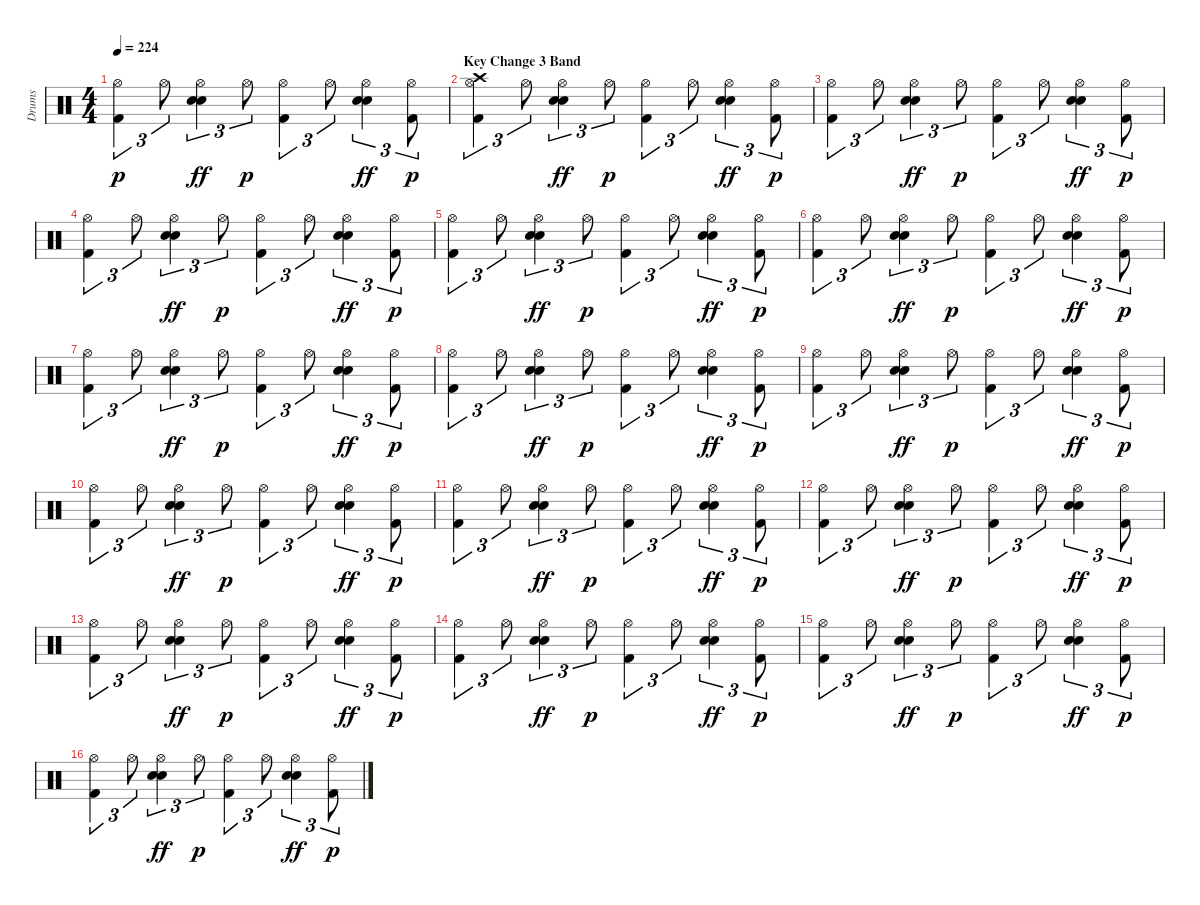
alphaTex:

\track ("Drums" "Drums") {instrument percussion}
\staff {score}
\articulation defaults
\ts (4 4)
\tempo 224
\clef neutral
\ks c
("Hi-Hat (open)" "Kick (hit) 2").4{tu (3 2) dy p} "Hi-Hat (open)".8{tu (3 2)} ("Hand Clap (hit)" "Hi-Hat (open)" "Snare (hit) 2").4{tu (3 2) dy ff} "Hi-Hat (open)".8{tu (3 2) dy p} ("Hi-Hat (open)" "Kick (hit) 2").4{tu (3 2)} "Hi-Hat (open)".8{tu (3 2)} ("Hand Clap (hit)" "Hi-Hat (open)" "Snare (hit) 2").4{tu (3 2) dy ff} ("Hi-Hat (open)" "Kick (hit) 2").8{tu (3 2) dy p} |
\section ("" "Key Change 3 Band")
("Crash high (hit)" "Hi-Hat (open)" "Kick (hit) 2").4{tu (3 2)} "Hi-Hat (open)".8{tu (3 2)} ("Hand Clap (hit)" "Hi-Hat (open)" "Snare (hit) 2").4{tu (3 2) dy ff} "Hi-Hat (open)".8{tu (3 2) dy p} ("Hi-Hat (open)" "Kick (hit) 2").4{tu (3 2)} "Hi-Hat (open)".8{tu (3 2)} ("Hand Clap (hit)" "Hi-Hat (open)" "Snare (hit) 2").4{tu (3 2) dy ff} ("Hi-Hat (open)" "Kick (hit) 2").8{tu (3 2) dy p} |
("Hi-Hat (open)" "Kick (hit) 2").4{tu (3 2)} "Hi-Hat (open)".8{tu (3 2)} ("Hand Clap (hit)" "Hi-Hat (open)" "Snare (hit) 2").4{tu (3 2) dy ff} "Hi-Hat (open)".8{tu (3 2) dy p} ("Hi-Hat (open)" "Kick (hit) 2").4{tu (3 2)} "Hi-Hat (open)".8{tu (3 2)} ("Hand Clap (hit)" "Hi-Hat (open)" "Snare (hit) 2").4{tu (3 2) dy ff} ("Hi-Hat (open)" "Kick (hit) 2").8{tu (3 2) dy p} |
("Hi-Hat (open)" "Kick (hit) 2").4{tu (3 2)} "Hi-Hat (open)".8{tu (3 2)} ("Hand Clap (hit)" "Hi-Hat (open)" "Snare (hit) 2").4{tu (3 2) dy ff} "Hi-Hat (open)".8{tu (3 2) dy p} ("Hi-Hat (open)" "Kick (hit) 2").4{tu (3 2)} "Hi-Hat (open)".8{tu (3 2)} ("Hand Clap (hit)" "Hi-Hat (open)" "Snare (hit) 2").4{tu (3 2) dy ff} ("Hi-Hat (open)" "Kick (hit) 2").8{tu (3 2) dy p} |
("Hi-Hat (open)" "Kick (hit) 2").4{tu (3 2)} "Hi-Hat (open)".8{tu (3 2)} ("Hand Clap (hit)" "Hi-Hat (open)" "Snare (hit) 2").4{tu (3 2) dy ff} "Hi-Hat (open)".8{tu (3 2) dy p} ("Hi-Hat (open)" "Kick (hit) 2").4{tu (3 2)} "Hi-Hat (open)".8{tu (3 2)} ("Hand Clap (hit)" "Hi-Hat (open)" "Snare (hit) 2").4{tu (3 2) dy ff} ("Hi-Hat (open)" "Kick (hit) 2").8{tu (3 2) dy p} |
("Hi-Hat (open)" "Kick (hit) 2").4{tu (3 2)} "Hi-Hat (open)".8{tu (3 2)} ("Hand Clap (hit)" "Hi-Hat (open)" "Snare (hit) 2").4{tu (3 2) dy ff} "Hi-Hat (open)".8{tu (3 2) dy p} ("Hi-Hat (open)" "Kick (hit) 2").4{tu (3 2)} "Hi-Hat (open)".8{tu (3 2)} ("Hand Clap (hit)" "Hi-Hat (open)" "Snare (hit) 2").4{tu (3 2) dy ff} ("Hi-Hat (open)" "Kick (hit) 2").8{tu (3 2) dy p} |
("Hi-Hat (open)" "Kick (hit) 2").4{tu (3 2)} "Hi-Hat (open)".8{tu (3 2)} ("Hand Clap (hit)" "Hi-Hat (open)" "Snare (hit) 2").4{tu (3 2) dy ff} "Hi-Hat (open)".8{tu (3 2) dy p} ("Hi-Hat (open)" "Kick (hit) 2").4{tu (3 2)} "Hi-Hat (open)".8{tu (3 2)} ("Hand Clap (hit)" "Hi-Hat (open)" "Snare (hit) 2").4{tu (3 2) dy ff} ("Hi-Hat (open)" "Kick (hit) 2").8{tu (3 2) dy p} |
("Hi-Hat (open)" "Kick (hit) 2").4{tu (3 2)} "Hi-Hat (open)".8{tu (3 2)} ("Hand Clap (hit)" "Hi-Hat (open)" "Snare (hit) 2").4{tu (3 2) dy ff} "Hi-Hat (open)".8{tu (3 2) dy p} ("Hi-Hat (open)" "Kick (hit) 2").4{tu (3 2)} "Hi-Hat (open)".8{tu (3 2)} ("Hand Clap (hit)" "Hi-Hat (open)" "Snare (hit) 2").4{tu (3 2) dy ff} ("Hi-Hat (open)" "Kick (hit) 2").8{tu (3 2) dy p} |
("Hi-Hat (open)" "Kick (hit) 2").4{tu (3 2)} "Hi-Hat (open)".8{tu (3 2)} ("Hand Clap (hit)" "Hi-Hat (open)" "Snare (hit) 2").4{tu (3 2) dy ff} "Hi-Hat (open)".8{tu (3 2) dy p} ("Hi-Hat (open)" "Kick (hit) 2").4{tu (3 2)} "Hi-Hat (open)".8{tu (3 2)} ("Hand Clap (hit)" "Hi-Hat (open)" "Snare (hit) 2").4{tu (3 2) dy ff} ("Hi-Hat (open)" "Kick (hit) 2").8{tu (3 2) dy p} |
("Hi-Hat (open)" "Kick (hit) 2").4{tu (3 2)} "Hi-Hat (open)".8{tu (3 2)} ("Hand Clap (hit)" "Hi-Hat (open)" "Snare (hit) 2").4{tu (3 2) dy ff} "Hi-Hat (open)".8{tu (3 2) dy p} ("Hi-Hat (open)" "Kick (hit) 2").4{tu (3 2)} "Hi-Hat (open)".8{tu (3 2)} ("Hand Clap (hit)" "Hi-Hat (open)" "Snare (hit) 2").4{tu (3 2) dy ff} ("Hi-Hat (open)" "Kick (hit) 2").8{tu (3 2) dy p} |
("Hi-Hat (open)" "Kick (hit) 2").4{tu (3 2)} "Hi-Hat (open)".8{tu (3 2)} ("Hand Clap (hit)" "Hi-Hat (open)" "Snare (hit) 2").4{tu (3 2) dy ff} "Hi-Hat (open)".8{tu (3 2) dy p} ("Hi-Hat (open)" "Kick (hit) 2").4{tu (3 2)} "Hi-Hat (open)".8{tu (3 2)} ("Hand Clap (hit)" "Hi-Hat (open)" "Snare (hit) 2").4{tu (3 2) dy ff} ("Hi-Hat (open)" "Kick (hit) 2").8{tu (3 2) dy p} |
("Hi-Hat (open)" "Kick (hit) 2").4{tu (3 2)} "Hi-Hat (open)".8{tu (3 2)} ("Hand Clap (hit)" "Hi-Hat (open)" "Snare (hit) 2").4{tu (3 2) dy ff} "Hi-Hat (open)".8{tu (3 2) dy p} ("Hi-Hat (open)" "Kick (hit) 2").4{tu (3 2)} "Hi-Hat (open)".8{tu (3 2)} ("Hand Clap (hit)" "Hi-Hat (open)" "Snare (hit) 2").4{tu (3 2) dy ff} ("Hi-Hat (open)" "Kick (hit) 2").8{tu (3 2) dy p} |
("Hi-Hat (open)" "Kick (hit) 2").4{tu (3 2)} "Hi-Hat (open)".8{tu (3 2)} ("Hand Clap (hit)" "Hi-Hat (open)" "Snare (hit) 2").4{tu (3 2) dy ff} "Hi-Hat (open)".8{tu (3 2) dy p} ("Hi-Hat (open)" "Kick (hit) 2").4{tu (3 2)} "Hi-Hat (open)".8{tu (3 2)} ("Hand Clap (hit)" "Hi-Hat (open)" "Snare (hit) 2").4{tu (3 2) dy ff} ("Hi-Hat (open)" "Kick (hit) 2").8{tu (3 2) dy p} |
("Hi-Hat (open)" "Kick (hit) 2").4{tu (3 2)} "Hi-Hat (open)".8{tu (3 2)} ("Hand Clap (hit)" "Hi-Hat (open)" "Snare (hit) 2").4{tu (3 2) dy ff} "Hi-Hat (open)".8{tu (3 2) dy p} ("Hi-Hat (open)" "Kick (hit) 2").4{tu (3 2)} "Hi-Hat (open)".8{tu (3 2)} ("Hand Clap (hit)" "Hi-Hat (open)" "Snare (hit) 2").4{tu (3 2) dy ff} ("Hi-Hat (open)" "Kick (hit) 2").8{tu (3 2) dy p} |
("Hi-Hat (open)" "Kick (hit) 2").4{tu (3 2)} "Hi-Hat (open)".8{tu (3 2)} ("Hand Clap (hit)" "Hi-Hat (open)" "Snare (hit) 2").4{tu (3 2) dy ff} "Hi-Hat (open)".8{tu (3 2) dy p} ("Hi-Hat (open)" "Kick (hit) 2").4{tu (3 2)} "Hi-Hat (open)".8{tu (3 2)} ("Hand Clap (hit)" "Hi-Hat (open)" "Snare (hit) 2").4{tu (3 2) dy ff} ("Hi-Hat (open)" "Kick (hit) 2").8{tu (3 2) dy p} |
("Hi-Hat (open)" "Kick (hit) 2").4{tu (3 2)} "Hi-Hat (open)".8{tu (3 2)} ("Hand Clap (hit)" "Hi-Hat (open)" "Snare (hit) 2").4{tu (3 2) dy ff} "Hi-Hat (open)".8{tu (3 2) dy p} ("Hi-Hat (open)" "Kick (hit) 2").4{tu (3 2)} "Hi-Hat (open)".8{tu (3 2)} ("Hand Clap (hit)" "Hi-Hat (open)" "Snare (hit) 2").4{tu (3 2) dy ff} ("Hi-Hat (open)" "Kick (hit) 2").8{tu (3 2) dy p}
